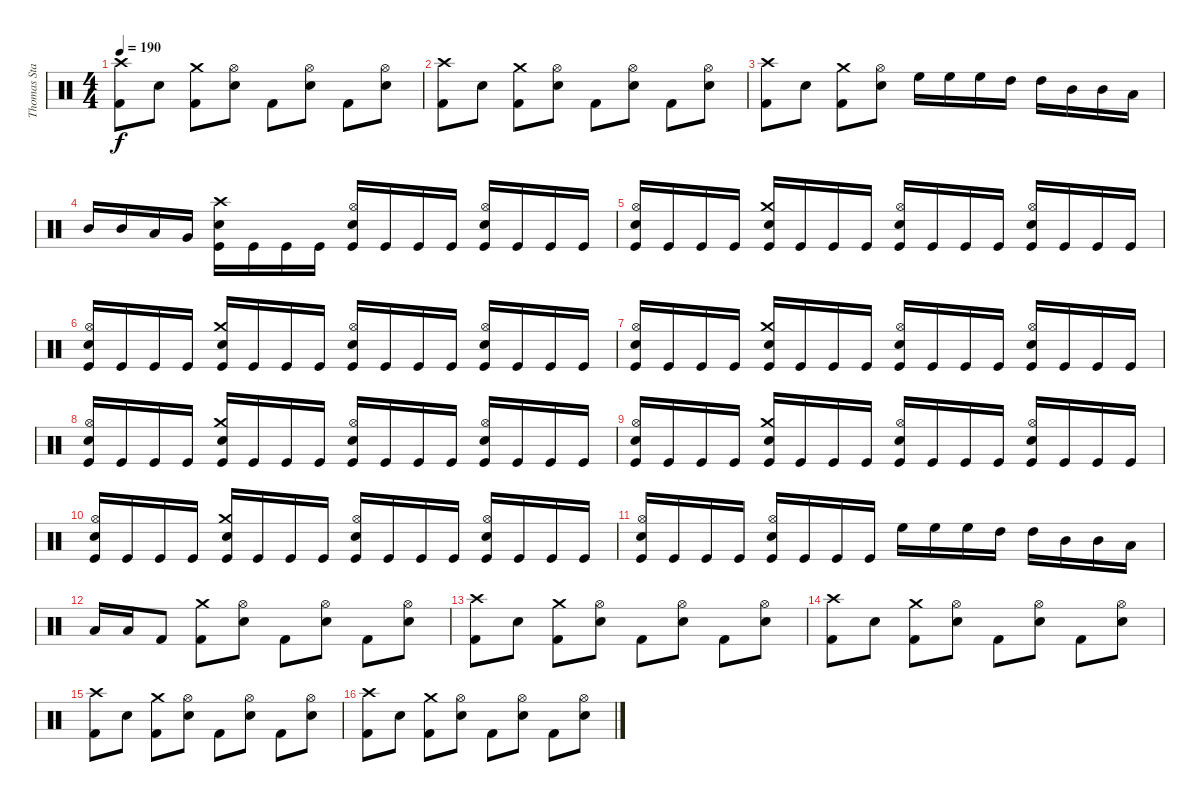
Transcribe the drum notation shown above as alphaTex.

\track ("Thomas Stauch" "Thomas Sta") {instrument percussion}
\staff {score}
\articulation defaults
\ts (4 4)
\tempo 190
\clef neutral
\ks c
("Crash high (hit)" "Kick (hit) 2").8{dy f} "Electric Snare (hit)".8 ("Crash medium (hit)" "Kick (hit) 2").8 ("Hi-Hat (open)" "Electric Snare (hit)").8 "Kick (hit) 2".8 ("Hi-Hat (open)" "Electric Snare (hit)").8 "Kick (hit) 2".8 ("Hi-Hat (open)" "Electric Snare (hit)").8 |
("Crash high (hit)" "Kick (hit) 2").8 "Electric Snare (hit)".8 ("Crash medium (hit)" "Kick (hit) 2").8 ("Hi-Hat (open)" "Electric Snare (hit)").8 "Kick (hit) 2".8 ("Hi-Hat (open)" "Electric Snare (hit)").8 "Kick (hit) 2".8 ("Hi-Hat (open)" "Electric Snare (hit)").8 |
("Crash high (hit)" "Kick (hit) 2").8 "Electric Snare (hit)".8 ("Crash medium (hit)" "Kick (hit) 2").8 ("Hi-Hat (open)" "Electric Snare (hit)").8 "High Floor Tom (hit)".16 "High Floor Tom (hit)".16 "High Floor Tom (hit)".16 "High Tom (hit)".16 "High Tom (hit)".16 "Mid Tom (hit)".16 "Mid Tom (hit)".16 "Low Tom (hit)".16 |
"Mid Tom (hit)".16 "Mid Tom (hit)".16 "Low Tom (hit)".16 "Very Low Tom (hit)".16 ("Crash high (hit)" "Electric Snare (hit)" "Kick (hit)").16 "Kick (hit)".16 "Kick (hit)".16 "Kick (hit)".16 ("Hi-Hat (open)" "Electric Snare (hit)" "Kick (hit)").16 "Kick (hit)".16 "Kick (hit)".16 "Kick (hit)".16 ("Hi-Hat (open)" "Electric Snare (hit)" "Kick (hit)").16 "Kick (hit)".16 "Kick (hit)".16 "Kick (hit)".16 |
("Hi-Hat (open)" "Electric Snare (hit)" "Kick (hit)").16 "Kick (hit)".16 "Kick (hit)".16 "Kick (hit)".16 ("Crash medium (hit)" "Electric Snare (hit)" "Kick (hit)").16 "Kick (hit)".16 "Kick (hit)".16 "Kick (hit)".16 ("Hi-Hat (open)" "Electric Snare (hit)" "Kick (hit)").16 "Kick (hit)".16 "Kick (hit)".16 "Kick (hit)".16 ("Hi-Hat (open)" "Electric Snare (hit)" "Kick (hit)").16 "Kick (hit)".16 "Kick (hit)".16 "Kick (hit)".16 |
("Hi-Hat (open)" "Electric Snare (hit)" "Kick (hit)").16 "Kick (hit)".16 "Kick (hit)".16 "Kick (hit)".16 ("Crash medium (hit)" "Electric Snare (hit)" "Kick (hit)").16 "Kick (hit)".16 "Kick (hit)".16 "Kick (hit)".16 ("Hi-Hat (open)" "Electric Snare (hit)" "Kick (hit)").16 "Kick (hit)".16 "Kick (hit)".16 "Kick (hit)".16 ("Hi-Hat (open)" "Electric Snare (hit)" "Kick (hit)").16 "Kick (hit)".16 "Kick (hit)".16 "Kick (hit)".16 |
("Hi-Hat (open)" "Electric Snare (hit)" "Kick (hit)").16 "Kick (hit)".16 "Kick (hit)".16 "Kick (hit)".16 ("Crash medium (hit)" "Electric Snare (hit)" "Kick (hit)").16 "Kick (hit)".16 "Kick (hit)".16 "Kick (hit)".16 ("Hi-Hat (open)" "Electric Snare (hit)" "Kick (hit)").16 "Kick (hit)".16 "Kick (hit)".16 "Kick (hit)".16 ("Hi-Hat (open)" "Electric Snare (hit)" "Kick (hit)").16 "Kick (hit)".16 "Kick (hit)".16 "Kick (hit)".16 |
("Hi-Hat (open)" "Electric Snare (hit)" "Kick (hit)").16 "Kick (hit)".16 "Kick (hit)".16 "Kick (hit)".16 ("Crash medium (hit)" "Electric Snare (hit)" "Kick (hit)").16 "Kick (hit)".16 "Kick (hit)".16 "Kick (hit)".16 ("Hi-Hat (open)" "Electric Snare (hit)" "Kick (hit)").16 "Kick (hit)".16 "Kick (hit)".16 "Kick (hit)".16 ("Hi-Hat (open)" "Electric Snare (hit)" "Kick (hit)").16 "Kick (hit)".16 "Kick (hit)".16 "Kick (hit)".16 |
("Hi-Hat (open)" "Electric Snare (hit)" "Kick (hit)").16 "Kick (hit)".16 "Kick (hit)".16 "Kick (hit)".16 ("Crash medium (hit)" "Electric Snare (hit)" "Kick (hit)").16 "Kick (hit)".16 "Kick (hit)".16 "Kick (hit)".16 ("Hi-Hat (open)" "Electric Snare (hit)" "Kick (hit)").16 "Kick (hit)".16 "Kick (hit)".16 "Kick (hit)".16 ("Hi-Hat (open)" "Electric Snare (hit)" "Kick (hit)").16 "Kick (hit)".16 "Kick (hit)".16 "Kick (hit)".16 |
("Hi-Hat (open)" "Electric Snare (hit)" "Kick (hit)").16 "Kick (hit)".16 "Kick (hit)".16 "Kick (hit)".16 ("Crash medium (hit)" "Electric Snare (hit)" "Kick (hit)").16 "Kick (hit)".16 "Kick (hit)".16 "Kick (hit)".16 ("Hi-Hat (open)" "Electric Snare (hit)" "Kick (hit)").16 "Kick (hit)".16 "Kick (hit)".16 "Kick (hit)".16 ("Hi-Hat (open)" "Electric Snare (hit)" "Kick (hit)").16 "Kick (hit)".16 "Kick (hit)".16 "Kick (hit)".16 |
("Hi-Hat (open)" "Electric Snare (hit)" "Kick (hit)").16 "Kick (hit)".16 "Kick (hit)".16 "Kick (hit)".16 ("Hi-Hat (open)" "Electric Snare (hit)" "Kick (hit)").16 "Kick (hit)".16 "Kick (hit)".16 "Kick (hit)".16 "High Floor Tom (hit)".16 "High Floor Tom (hit)".16 "High Floor Tom (hit)".16 "High Tom (hit)".16 "High Tom (hit)".16 "Mid Tom (hit)".16 "Mid Tom (hit)".16 "Low Tom (hit)".16 |
"Low Tom (hit)".16 "Low Tom (hit)".16 "Kick (hit) 2".8 ("Crash medium (hit)" "Kick (hit) 2").8 ("Hi-Hat (open)" "Electric Snare (hit)").8 "Kick (hit) 2".8 ("Hi-Hat (open)" "Electric Snare (hit)").8 "Kick (hit) 2".8 ("Hi-Hat (open)" "Electric Snare (hit)").8 |
("Crash high (hit)" "Kick (hit) 2").8 "Electric Snare (hit)".8 ("Crash medium (hit)" "Kick (hit) 2").8 ("Hi-Hat (open)" "Electric Snare (hit)").8 "Kick (hit) 2".8 ("Hi-Hat (open)" "Electric Snare (hit)").8 "Kick (hit) 2".8 ("Hi-Hat (open)" "Electric Snare (hit)").8 |
("Crash high (hit)" "Kick (hit) 2").8 "Electric Snare (hit)".8 ("Crash medium (hit)" "Kick (hit) 2").8 ("Hi-Hat (open)" "Electric Snare (hit)").8 "Kick (hit) 2".8 ("Hi-Hat (open)" "Electric Snare (hit)").8 "Kick (hit) 2".8 ("Hi-Hat (open)" "Electric Snare (hit)").8 |
("Crash high (hit)" "Kick (hit) 2").8 "Electric Snare (hit)".8 ("Crash medium (hit)" "Kick (hit) 2").8 ("Hi-Hat (open)" "Electric Snare (hit)").8 "Kick (hit) 2".8 ("Hi-Hat (open)" "Electric Snare (hit)").8 "Kick (hit) 2".8 ("Hi-Hat (open)" "Electric Snare (hit)").8 |
("Crash high (hit)" "Kick (hit) 2").8 "Electric Snare (hit)".8 ("Crash medium (hit)" "Kick (hit) 2").8 ("Hi-Hat (open)" "Electric Snare (hit)").8 "Kick (hit) 2".8 ("Hi-Hat (open)" "Electric Snare (hit)").8 "Kick (hit) 2".8 ("Hi-Hat (open)" "Electric Snare (hit)").8
